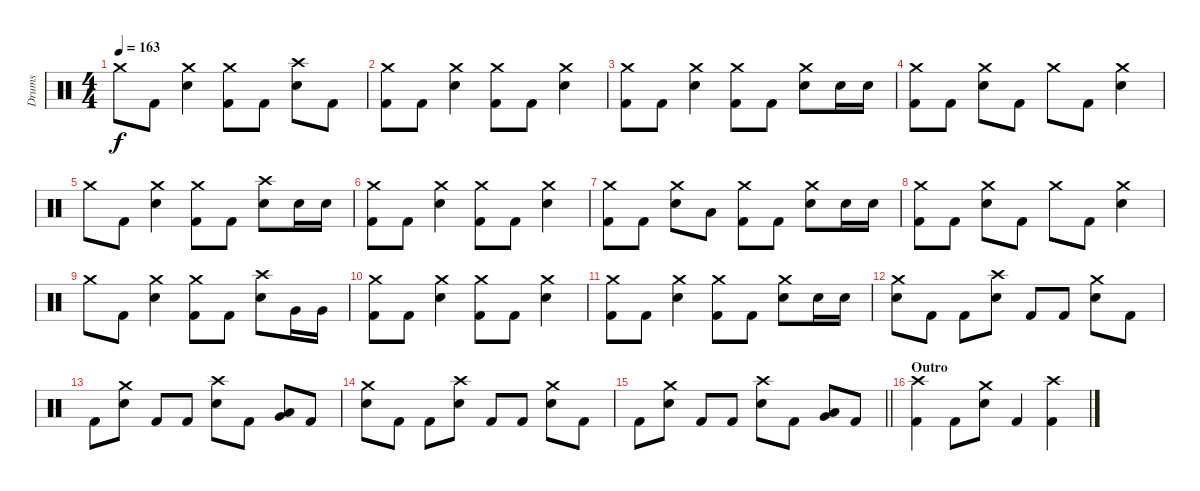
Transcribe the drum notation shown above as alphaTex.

\track ("Drums" "Drums") {instrument percussion}
\staff {score}
\articulation defaults
\ts (4 4)
\tempo 163
\clef neutral
\ks c "Crash medium (hit)".8{dy f} "Kick (hit) 2".8
("Crash medium (hit)" "Electric Snare (hit)").4 ("Crash medium (hit)" "Kick (hit) 2").8 "Kick (hit) 2".8 ("Crash high (hit)" "Electric Snare (hit)").8 "Kick (hit) 2".8 |
("Crash medium (hit)" "Kick (hit) 2").8 "Kick (hit) 2".8 ("Crash medium (hit)" "Electric Snare (hit)").4 ("Crash medium (hit)" "Kick (hit) 2").8 "Kick (hit) 2".8 ("Crash medium (hit)" "Electric Snare (hit)").4 |
("Crash medium (hit)" "Kick (hit) 2").8 "Kick (hit) 2".8 ("Crash medium (hit)" "Electric Snare (hit)").4 ("Crash medium (hit)" "Kick (hit) 2").8 "Kick (hit) 2".8 ("Crash medium (hit)" "Electric Snare (hit)").8 "Electric Snare (hit)".16 "Electric Snare (hit)".16 |
("Crash medium (hit)" "Kick (hit) 2").8 "Kick (hit) 2".8 ("Crash medium (hit)" "Electric Snare (hit)").8 "Kick (hit) 2".8 "Crash medium (hit)".8 "Kick (hit) 2".8 ("Crash medium (hit)" "Electric Snare (hit)").4 |
"Crash medium (hit)".8 "Kick (hit) 2".8 ("Crash medium (hit)" "Electric Snare (hit)").4 ("Crash medium (hit)" "Kick (hit) 2").8 "Kick (hit) 2".8 ("Crash high (hit)" "Electric Snare (hit)").8 "Electric Snare (hit)".16 "Electric Snare (hit)".16 |
("Crash medium (hit)" "Kick (hit) 2").8 "Kick (hit) 2".8 ("Crash medium (hit)" "Electric Snare (hit)").4 ("Crash medium (hit)" "Kick (hit) 2").8 "Kick (hit) 2".8 ("Crash medium (hit)" "Electric Snare (hit)").4 |
("Crash medium (hit)" "Kick (hit) 2").8 "Kick (hit) 2".8 ("Crash medium (hit)" "Electric Snare (hit)").8 "Low Tom (hit)".8 ("Crash medium (hit)" "Kick (hit) 2").8 "Kick (hit) 2".8 ("Crash medium (hit)" "Electric Snare (hit)").8 "Electric Snare (hit)".16 "Electric Snare (hit)".16 |
("Crash medium (hit)" "Kick (hit) 2").8 "Kick (hit) 2".8 ("Crash medium (hit)" "Electric Snare (hit)").8 "Kick (hit) 2".8 "Crash medium (hit)".8 "Kick (hit) 2".8 ("Crash medium (hit)" "Electric Snare (hit)").4 |
"Crash medium (hit)".8 "Kick (hit) 2".8 ("Crash medium (hit)" "Electric Snare (hit)").4 ("Crash medium (hit)" "Kick (hit) 2").8 "Kick (hit) 2".8 ("Crash high (hit)" "Electric Snare (hit)").8 "Very Low Tom (hit)".16 "Very Low Tom (hit)".16 |
("Crash medium (hit)" "Kick (hit) 2").8 "Kick (hit) 2".8 ("Crash medium (hit)" "Electric Snare (hit)").4 ("Crash medium (hit)" "Kick (hit) 2").8 "Kick (hit) 2".8 ("Crash medium (hit)" "Electric Snare (hit)").4 |
("Crash medium (hit)" "Kick (hit) 2").8 "Kick (hit) 2".8 ("Crash medium (hit)" "Electric Snare (hit)").4 ("Crash medium (hit)" "Kick (hit) 2").8 "Kick (hit) 2".8 ("Crash medium (hit)" "Electric Snare (hit)").8 "Electric Snare (hit)".16 "Electric Snare (hit)".16 |
("Crash medium (hit)" "Electric Snare (hit)").8 "Kick (hit) 2".8 "Kick (hit) 2".8 ("Crash high (hit)" "Electric Snare (hit)").8 "Kick (hit) 2".8 "Kick (hit) 2".8 ("Crash medium (hit)" "Electric Snare (hit)").8 "Kick (hit) 2".8 |
"Kick (hit) 2".8 ("Crash medium (hit)" "Electric Snare (hit)").8 "Kick (hit) 2".8 "Kick (hit) 2".8 ("Crash high (hit)" "Electric Snare (hit)").8 "Kick (hit) 2".8 ("Low Tom (hit)" "Very Low Tom (hit)").8 "Kick (hit) 2".8 |
("Crash medium (hit)" "Electric Snare (hit)").8 "Kick (hit) 2".8 "Kick (hit) 2".8 ("Crash high (hit)" "Electric Snare (hit)").8 "Kick (hit) 2".8 "Kick (hit) 2".8 ("Crash medium (hit)" "Electric Snare (hit)").8 "Kick (hit) 2".8 |
\barLineRight lightlight "Kick (hit) 2".8
("Crash medium (hit)" "Electric Snare (hit)").8 "Kick (hit) 2".8 "Kick (hit) 2".8 ("Crash high (hit)" "Electric Snare (hit)").8 "Kick (hit) 2".8 ("Low Tom (hit)" "Very Low Tom (hit)").8 "Kick (hit) 2".8 |
\section ("" "Outro")
("Crash high (hit)" "Kick (hit) 2").4 "Kick (hit) 2".8 ("Crash medium (hit)" "Electric Snare (hit)").8 "Kick (hit) 2".4 ("Crash high (hit)" "Kick (hit) 2").4
